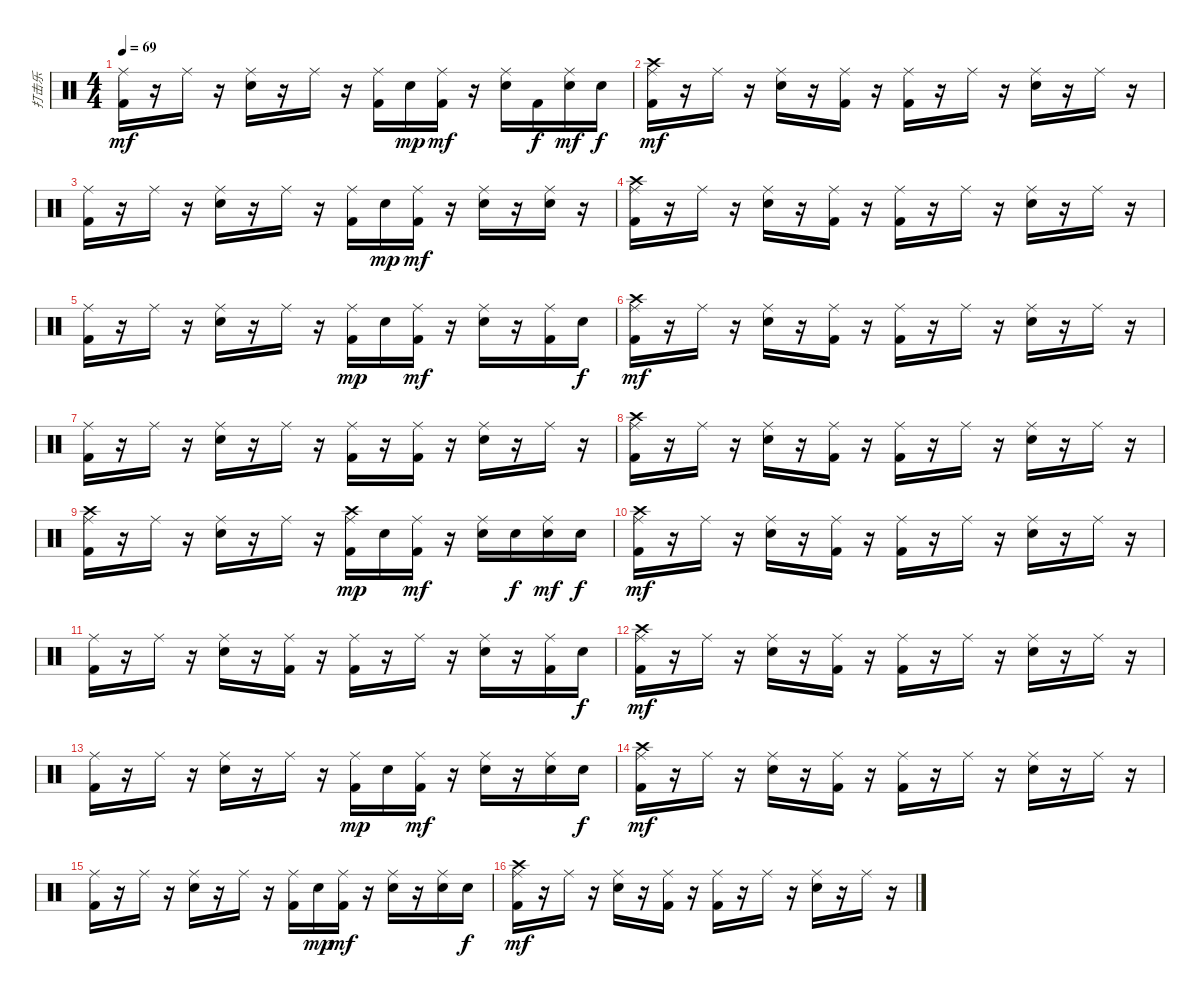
\track ("打击乐" "打击乐") {instrument percussion}
\staff {score}
\articulation defaults
\ts (4 4)
\tempo 69
\clef neutral
\ks c
("Kick (hit) 2" "Ride (middle)").16{dy mf} r.16 "Ride (middle)".16 r.16 ("Electric Snare (hit)" "Ride (middle)").16 r.16 "Ride (middle)".16 r.16 ("Kick (hit) 2" "Ride (middle)").16 "Electric Snare (hit)".16{dy mp} ("Kick (hit) 2" "Ride (middle)").16{dy mf} r.16 ("Electric Snare (hit)" "Ride (middle)").16 "Kick (hit) 2".16{dy f} ("Electric Snare (hit)" "Ride (middle)").16{dy mf} "Electric Snare (hit)".16{dy f} |
("Ride (middle)" "Kick (hit) 2" "Crash high (hit)").16{dy mf} r.16 "Ride (middle)".16 r.16 ("Electric Snare (hit)" "Ride (middle)").16 r.16 ("Ride (middle)" "Kick (hit) 2").16 r.16 ("Ride (middle)" "Kick (hit) 2").16 r.16 "Ride (middle)".16 r.16 ("Electric Snare (hit)" "Ride (middle)").16 r.16 "Ride (middle)".16 r.16 |
("Ride (middle)" "Kick (hit) 2").16 r.16 "Ride (middle)".16 r.16 ("Ride (middle)" "Electric Snare (hit)").16 r.16 "Ride (middle)".16 r.16 ("Kick (hit) 2" "Ride (middle)").16 "Electric Snare (hit)".16{dy mp} ("Kick (hit) 2" "Ride (middle)").16{dy mf} r.16 ("Ride (middle)" "Electric Snare (hit)").16 r.16 ("Ride (middle)" "Electric Snare (hit)").16 r.16 |
("Crash high (hit)" "Ride (middle)" "Kick (hit) 2").16 r.16 "Ride (middle)".16 r.16 ("Electric Snare (hit)" "Ride (middle)").16 r.16 ("Kick (hit) 2" "Ride (middle)").16 r.16 ("Kick (hit) 2" "Ride (middle)").16 r.16 "Ride (middle)".16 r.16 ("Electric Snare (hit)" "Ride (middle)").16 r.16 "Ride (middle)".16 r.16 |
("Kick (hit) 2" "Ride (middle)").16 r.16 "Ride (middle)".16 r.16 ("Electric Snare (hit)" "Ride (middle)").16 r.16 "Ride (middle)".16 r.16 ("Ride (middle)" "Kick (hit) 2").16{dy mp} "Electric Snare (hit)".16 ("Kick (hit) 2" "Ride (middle)").16{dy mf} r.16 ("Electric Snare (hit)" "Ride (middle)").16 r.16 ("Kick (hit) 2" "Ride (middle)").16 "Electric Snare (hit)".16{dy f} |
("Crash high (hit)" "Kick (hit) 2" "Ride (middle)").16{dy mf} r.16 "Ride (middle)".16 r.16 ("Electric Snare (hit)" "Ride (middle)").16 r.16 ("Kick (hit) 2" "Ride (middle)").16 r.16 ("Kick (hit) 2" "Ride (middle)").16 r.16 "Ride (middle)".16 r.16 ("Ride (middle)" "Electric Snare (hit)").16 r.16 "Ride (middle)".16 r.16 |
("Ride (middle)" "Kick (hit) 2").16 r.16 "Ride (middle)".16 r.16 ("Electric Snare (hit)" "Ride (middle)").16 r.16 "Ride (middle)".16 r.16 ("Kick (hit) 2" "Ride (middle)").16 r.16 ("Kick (hit) 2" "Ride (middle)").16 r.16 ("Electric Snare (hit)" "Ride (middle)").16 r.16 "Ride (middle)".16 r.16 |
("Kick (hit) 2" "Ride (middle)" "Crash high (hit)").16 r.16 "Ride (middle)".16 r.16 ("Ride (middle)" "Electric Snare (hit)").16 r.16 ("Ride (middle)" "Kick (hit) 2").16 r.16 ("Ride (middle)" "Kick (hit) 2").16 r.16 "Ride (middle)".16 r.16 ("Electric Snare (hit)" "Ride (middle)").16 r.16 "Ride (middle)".16 r.16 |
("Crash high (hit)" "Kick (hit) 2" "Ride (middle)").16 r.16 "Ride (middle)".16 r.16 ("Electric Snare (hit)" "Ride (middle)").16 r.16 "Ride (middle)".16 r.16 ("Crash high (hit)" "Ride (middle)" "Kick (hit) 2").16{dy mp} "Electric Snare (hit)".16 ("Ride (middle)" "Kick (hit) 2").16{dy mf} r.16 ("Ride (middle)" "Electric Snare (hit)").16 "Electric Snare (hit)".16{dy f} ("Electric Snare (hit)" "Ride (middle)").16{dy mf} "Electric Snare (hit)".16{dy f} |
("Ride (middle)" "Kick (hit) 2" "Crash high (hit)").16{dy mf} r.16 "Ride (middle)".16 r.16 ("Electric Snare (hit)" "Ride (middle)").16 r.16 ("Ride (middle)" "Kick (hit) 2").16 r.16 ("Ride (middle)" "Kick (hit) 2").16 r.16 "Ride (middle)".16 r.16 ("Electric Snare (hit)" "Ride (middle)").16 r.16 "Ride (middle)".16 r.16 |
("Ride (middle)" "Kick (hit) 2").16 r.16 "Ride (middle)".16 r.16 ("Ride (middle)" "Electric Snare (hit)").16 r.16 ("Kick (hit) 2" "Ride (middle)").16 r.16 ("Kick (hit) 2" "Ride (middle)").16 r.16 "Ride (middle)".16 r.16 ("Electric Snare (hit)" "Ride (middle)").16 r.16 ("Kick (hit) 2" "Ride (middle)").16 "Electric Snare (hit)".16{dy f} |
("Crash high (hit)" "Ride (middle)" "Kick (hit) 2").16{dy mf} r.16 "Ride (middle)".16 r.16 ("Electric Snare (hit)" "Ride (middle)").16 r.16 ("Kick (hit) 2" "Ride (middle)").16 r.16 ("Kick (hit) 2" "Ride (middle)").16 r.16 "Ride (middle)".16 r.16 ("Electric Snare (hit)" "Ride (middle)").16 r.16 "Ride (middle)".16 r.16 |
("Kick (hit) 2" "Ride (middle)").16 r.16 "Ride (middle)".16 r.16 ("Electric Snare (hit)" "Ride (middle)").16 r.16 "Ride (middle)".16 r.16 ("Ride (middle)" "Kick (hit) 2").16{dy mp} "Electric Snare (hit)".16 ("Kick (hit) 2" "Ride (middle)").16{dy mf} r.16 ("Electric Snare (hit)" "Ride (middle)").16 r.16 ("Electric Snare (hit)" "Ride (middle)").16 "Electric Snare (hit)".16{dy f} |
("Ride (middle)" "Kick (hit) 2" "Crash high (hit)").16{dy mf} r.16 "Ride (middle)".16 r.16 ("Electric Snare (hit)" "Ride (middle)").16 r.16 ("Ride (middle)" "Kick (hit) 2").16 r.16 ("Ride (middle)" "Kick (hit) 2").16 r.16 "Ride (middle)".16 r.16 ("Electric Snare (hit)" "Ride (middle)").16 r.16 "Ride (middle)".16 r.16 |
("Ride (middle)" "Kick (hit) 2").16 r.16 "Ride (middle)".16 r.16 ("Ride (middle)" "Electric Snare (hit)").16 r.16 "Ride (middle)".16 r.16 ("Kick (hit) 2" "Ride (middle)").16 "Electric Snare (hit)".16{dy mp} ("Kick (hit) 2" "Ride (middle)").16{dy mf} r.16 ("Ride (middle)" "Electric Snare (hit)").16 r.16 ("Ride (middle)" "Electric Snare (hit)").16 "Electric Snare (hit)".16{dy f} |
("Crash high (hit)" "Ride (middle)" "Kick (hit) 2").16{dy mf} r.16 "Ride (middle)".16 r.16 ("Electric Snare (hit)" "Ride (middle)").16 r.16 ("Kick (hit) 2" "Ride (middle)").16 r.16 ("Kick (hit) 2" "Ride (middle)").16 r.16 "Ride (middle)".16 r.16 ("Electric Snare (hit)" "Ride (middle)").16 r.16 "Ride (middle)".16 r.16
